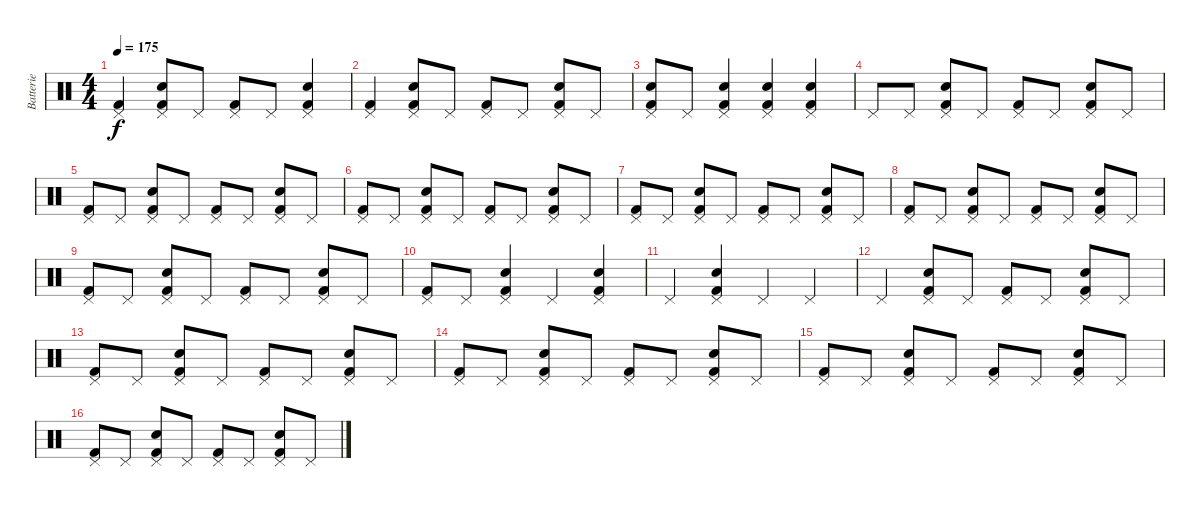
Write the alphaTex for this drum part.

\track ("Batterie" "Batterie") {instrument percussion}
\staff {score}
\articulation defaults
\ts (4 4)
\tempo 175
\clef neutral
\ks c
("Pedal Hi-Hat (hit)" "Kick (hit) 2").4{dy f} ("Pedal Hi-Hat (hit)" "Electric Snare (hit)" "Kick (hit) 2").8 "Pedal Hi-Hat (hit)".8 ("Pedal Hi-Hat (hit)" "Kick (hit) 2").8 "Pedal Hi-Hat (hit)".8 ("Pedal Hi-Hat (hit)" "Electric Snare (hit)" "Kick (hit) 2").4 |
("Pedal Hi-Hat (hit)" "Kick (hit) 2").4 ("Pedal Hi-Hat (hit)" "Electric Snare (hit)" "Kick (hit) 2").8 "Pedal Hi-Hat (hit)".8 ("Pedal Hi-Hat (hit)" "Kick (hit) 2").8 "Pedal Hi-Hat (hit)".8 ("Pedal Hi-Hat (hit)" "Electric Snare (hit)" "Kick (hit) 2").8 "Pedal Hi-Hat (hit)".8 |
("Pedal Hi-Hat (hit)" "Electric Snare (hit)" "Kick (hit) 2").8 "Pedal Hi-Hat (hit)".8 ("Pedal Hi-Hat (hit)" "Electric Snare (hit)" "Kick (hit) 2").4 ("Pedal Hi-Hat (hit)" "Electric Snare (hit)" "Kick (hit) 2").4 ("Pedal Hi-Hat (hit)" "Electric Snare (hit)" "Kick (hit) 2").4 |
"Pedal Hi-Hat (hit)".8 "Pedal Hi-Hat (hit)".8 ("Pedal Hi-Hat (hit)" "Electric Snare (hit)" "Kick (hit) 2").8 "Pedal Hi-Hat (hit)".8 ("Pedal Hi-Hat (hit)" "Kick (hit) 2").8 "Pedal Hi-Hat (hit)".8 ("Pedal Hi-Hat (hit)" "Electric Snare (hit)" "Kick (hit) 2").8 "Pedal Hi-Hat (hit)".8 |
("Pedal Hi-Hat (hit)" "Kick (hit) 2").8 "Pedal Hi-Hat (hit)".8 ("Pedal Hi-Hat (hit)" "Electric Snare (hit)" "Kick (hit) 2").8 "Pedal Hi-Hat (hit)".8 ("Pedal Hi-Hat (hit)" "Kick (hit) 2").8 "Pedal Hi-Hat (hit)".8 ("Pedal Hi-Hat (hit)" "Electric Snare (hit)" "Kick (hit) 2").8 "Pedal Hi-Hat (hit)".8 |
("Pedal Hi-Hat (hit)" "Kick (hit) 2").8 "Pedal Hi-Hat (hit)".8 ("Pedal Hi-Hat (hit)" "Electric Snare (hit)" "Kick (hit) 2").8 "Pedal Hi-Hat (hit)".8 ("Pedal Hi-Hat (hit)" "Kick (hit) 2").8 "Pedal Hi-Hat (hit)".8 ("Pedal Hi-Hat (hit)" "Electric Snare (hit)" "Kick (hit) 2").8 "Pedal Hi-Hat (hit)".8 |
("Pedal Hi-Hat (hit)" "Kick (hit) 2").8 "Pedal Hi-Hat (hit)".8 ("Pedal Hi-Hat (hit)" "Electric Snare (hit)" "Kick (hit) 2").8 "Pedal Hi-Hat (hit)".8 ("Pedal Hi-Hat (hit)" "Kick (hit) 2").8 "Pedal Hi-Hat (hit)".8 ("Pedal Hi-Hat (hit)" "Electric Snare (hit)" "Kick (hit) 2").8 "Pedal Hi-Hat (hit)".8 |
("Pedal Hi-Hat (hit)" "Kick (hit) 2").8 "Pedal Hi-Hat (hit)".8 ("Pedal Hi-Hat (hit)" "Electric Snare (hit)" "Kick (hit) 2").8 "Pedal Hi-Hat (hit)".8 ("Pedal Hi-Hat (hit)" "Kick (hit) 2").8 "Pedal Hi-Hat (hit)".8 ("Pedal Hi-Hat (hit)" "Electric Snare (hit)" "Kick (hit) 2").8 "Pedal Hi-Hat (hit)".8 |
("Pedal Hi-Hat (hit)" "Kick (hit) 2").8 "Pedal Hi-Hat (hit)".8 ("Pedal Hi-Hat (hit)" "Electric Snare (hit)" "Kick (hit) 2").8 "Pedal Hi-Hat (hit)".8 ("Pedal Hi-Hat (hit)" "Kick (hit) 2").8 "Pedal Hi-Hat (hit)".8 ("Pedal Hi-Hat (hit)" "Electric Snare (hit)" "Kick (hit) 2").8 "Pedal Hi-Hat (hit)".8 |
("Pedal Hi-Hat (hit)" "Kick (hit) 2").8 "Pedal Hi-Hat (hit)".8 ("Pedal Hi-Hat (hit)" "Electric Snare (hit)" "Kick (hit) 2").4 "Pedal Hi-Hat (hit)".4 ("Pedal Hi-Hat (hit)" "Electric Snare (hit)" "Kick (hit) 2").4 |
"Pedal Hi-Hat (hit)".4 ("Pedal Hi-Hat (hit)" "Electric Snare (hit)" "Kick (hit) 2").4 "Pedal Hi-Hat (hit)".4 "Pedal Hi-Hat (hit)".4 |
"Pedal Hi-Hat (hit)".4 ("Pedal Hi-Hat (hit)" "Electric Snare (hit)" "Kick (hit) 2").8 "Pedal Hi-Hat (hit)".8 ("Pedal Hi-Hat (hit)" "Kick (hit) 2").8 "Pedal Hi-Hat (hit)".8 ("Pedal Hi-Hat (hit)" "Electric Snare (hit)" "Kick (hit) 2").8 "Pedal Hi-Hat (hit)".8 |
("Pedal Hi-Hat (hit)" "Kick (hit) 2").8 "Pedal Hi-Hat (hit)".8 ("Pedal Hi-Hat (hit)" "Electric Snare (hit)" "Kick (hit) 2").8 "Pedal Hi-Hat (hit)".8 ("Pedal Hi-Hat (hit)" "Kick (hit) 2").8 "Pedal Hi-Hat (hit)".8 ("Pedal Hi-Hat (hit)" "Electric Snare (hit)" "Kick (hit) 2").8 "Pedal Hi-Hat (hit)".8 |
("Pedal Hi-Hat (hit)" "Kick (hit) 2").8 "Pedal Hi-Hat (hit)".8 ("Pedal Hi-Hat (hit)" "Electric Snare (hit)" "Kick (hit) 2").8 "Pedal Hi-Hat (hit)".8 ("Pedal Hi-Hat (hit)" "Kick (hit) 2").8 "Pedal Hi-Hat (hit)".8 ("Pedal Hi-Hat (hit)" "Electric Snare (hit)" "Kick (hit) 2").8 "Pedal Hi-Hat (hit)".8 |
("Pedal Hi-Hat (hit)" "Kick (hit) 2").8 "Pedal Hi-Hat (hit)".8 ("Pedal Hi-Hat (hit)" "Electric Snare (hit)" "Kick (hit) 2").8 "Pedal Hi-Hat (hit)".8 ("Pedal Hi-Hat (hit)" "Kick (hit) 2").8 "Pedal Hi-Hat (hit)".8 ("Pedal Hi-Hat (hit)" "Electric Snare (hit)" "Kick (hit) 2").8 "Pedal Hi-Hat (hit)".8 |
("Pedal Hi-Hat (hit)" "Kick (hit) 2").8 "Pedal Hi-Hat (hit)".8 ("Pedal Hi-Hat (hit)" "Electric Snare (hit)" "Kick (hit) 2").8 "Pedal Hi-Hat (hit)".8 ("Pedal Hi-Hat (hit)" "Kick (hit) 2").8 "Pedal Hi-Hat (hit)".8 ("Pedal Hi-Hat (hit)" "Electric Snare (hit)" "Kick (hit) 2").8 "Pedal Hi-Hat (hit)".8
